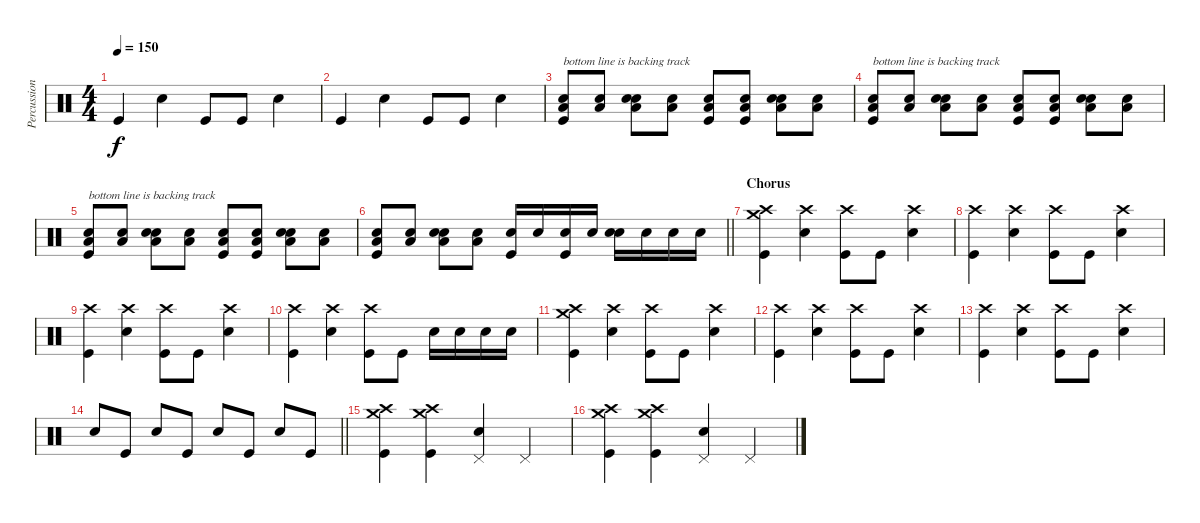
\track ("Percussion" "Percussion") {instrument percussion}
\staff {score}
\articulation defaults
\ts (4 4)
\tempo 150
\clef neutral
\ks c "Kick (hit)".4{dy f} "Electric Snare (hit)".4 "Kick (hit)".8 "Kick (hit)".8 "Electric Snare (hit)".4
|
"Kick (hit)".4 "Electric Snare (hit)".4 "Kick (hit)".8 "Kick (hit)".8 "Electric Snare (hit)".4 |
("Electric Snare (hit)" "Low Floor Tom (hit)" "Kick (hit)").8{txt "bottom line is backing track"} ("Electric Snare (hit)" "Low Floor Tom (hit)").8 ("Electric Snare (hit)" "Low Floor Tom (hit)" "Electric Snare (hit)").8 ("Electric Snare (hit)" "Low Floor Tom (hit)").8 ("Electric Snare (hit)" "Low Floor Tom (hit)" "Kick (hit)").8 ("Electric Snare (hit)" "Low Floor Tom (hit)" "Kick (hit)").8 ("Electric Snare (hit)" "Low Floor Tom (hit)" "Electric Snare (hit)").8 ("Electric Snare (hit)" "Low Floor Tom (hit)").8 |
("Electric Snare (hit)" "Low Floor Tom (hit)" "Kick (hit)").8{txt "bottom line is backing track"} ("Electric Snare (hit)" "Low Floor Tom (hit)").8 ("Electric Snare (hit)" "Low Floor Tom (hit)" "Electric Snare (hit)").8 ("Electric Snare (hit)" "Low Floor Tom (hit)").8 ("Electric Snare (hit)" "Low Floor Tom (hit)" "Kick (hit)").8 ("Electric Snare (hit)" "Low Floor Tom (hit)" "Kick (hit)").8 ("Electric Snare (hit)" "Low Floor Tom (hit)" "Electric Snare (hit)").8 ("Electric Snare (hit)" "Low Floor Tom (hit)").8 |
("Electric Snare (hit)" "Low Floor Tom (hit)" "Kick (hit)").8{txt "bottom line is backing track"} ("Electric Snare (hit)" "Low Floor Tom (hit)").8 ("Electric Snare (hit)" "Low Floor Tom (hit)" "Electric Snare (hit)").8 ("Electric Snare (hit)" "Low Floor Tom (hit)").8 ("Electric Snare (hit)" "Low Floor Tom (hit)" "Kick (hit)").8 ("Electric Snare (hit)" "Low Floor Tom (hit)" "Kick (hit)").8 ("Electric Snare (hit)" "Low Floor Tom (hit)" "Electric Snare (hit)").8 ("Electric Snare (hit)" "Low Floor Tom (hit)").8 |
\barLineRight lightlight
("Electric Snare (hit)" "Low Floor Tom (hit)" "Kick (hit)").8 ("Electric Snare (hit)" "Low Floor Tom (hit)").8 ("Electric Snare (hit)" "Low Floor Tom (hit)" "Electric Snare (hit)").8 ("Electric Snare (hit)" "Low Floor Tom (hit)").8 ("Electric Snare (hit)" "Kick (hit)").16 "Electric Snare (hit)".16 ("Electric Snare (hit)" "Kick (hit)").16 "Electric Snare (hit)".16 ("Electric Snare (hit)" "Electric Snare (hit)").16 "Electric Snare (hit)".16 "Electric Snare (hit)".16 "Electric Snare (hit)".16 |
\section ("" "Chorus")
("Crash high (hit)" "Crash medium (hit)" "Kick (hit)").4 ("Crash high (hit)" "Electric Snare (hit)").4 ("Crash high (hit)" "Kick (hit)").8 "Kick (hit)".8 ("Crash high (hit)" "Electric Snare (hit)").4 |
("Crash high (hit)" "Kick (hit)").4 ("Crash high (hit)" "Electric Snare (hit)").4 ("Crash high (hit)" "Kick (hit)").8 "Kick (hit)".8 ("Crash high (hit)" "Electric Snare (hit)").4 |
("Crash high (hit)" "Kick (hit)").4 ("Crash high (hit)" "Electric Snare (hit)").4 ("Crash high (hit)" "Kick (hit)").8 "Kick (hit)".8 ("Crash high (hit)" "Electric Snare (hit)").4 |
("Crash high (hit)" "Kick (hit)").4 ("Crash high (hit)" "Electric Snare (hit)").4 ("Crash high (hit)" "Kick (hit)").8 "Kick (hit)".8 "Electric Snare (hit)".16 "Electric Snare (hit)".16 "Electric Snare (hit)".16 "Electric Snare (hit)".16 |
("Crash high (hit)" "Crash medium (hit)" "Kick (hit)").4 ("Crash high (hit)" "Electric Snare (hit)").4 ("Crash high (hit)" "Kick (hit)").8 "Kick (hit)".8 ("Crash high (hit)" "Electric Snare (hit)").4 |
("Crash high (hit)" "Kick (hit)").4 ("Crash high (hit)" "Electric Snare (hit)").4 ("Crash high (hit)" "Kick (hit)").8 "Kick (hit)".8 ("Crash high (hit)" "Electric Snare (hit)").4 |
("Crash high (hit)" "Kick (hit)").4 ("Crash high (hit)" "Electric Snare (hit)").4 ("Crash high (hit)" "Kick (hit)").8 "Kick (hit)".8 ("Crash high (hit)" "Electric Snare (hit)").4 |
\barLineRight lightlight "Electric Snare (hit)".8 "Kick (hit)".8 "Electric Snare (hit)".8 "Kick (hit)".8 "Electric Snare (hit)".8 "Kick (hit)".8 "Electric Snare (hit)".8 "Kick (hit)".8
|
("Crash high (hit)" "Crash medium (hit)" "Kick (hit)").4 ("Crash high (hit)" "Crash medium (hit)" "Kick (hit)").4 ("Pedal Hi-Hat (hit)" "Electric Snare (hit)").4 "Pedal Hi-Hat (hit)".4 |
("Crash high (hit)" "Crash medium (hit)" "Kick (hit)").4 ("Crash high (hit)" "Crash medium (hit)" "Kick (hit)").4 ("Pedal Hi-Hat (hit)" "Electric Snare (hit)").4 "Pedal Hi-Hat (hit)".4
